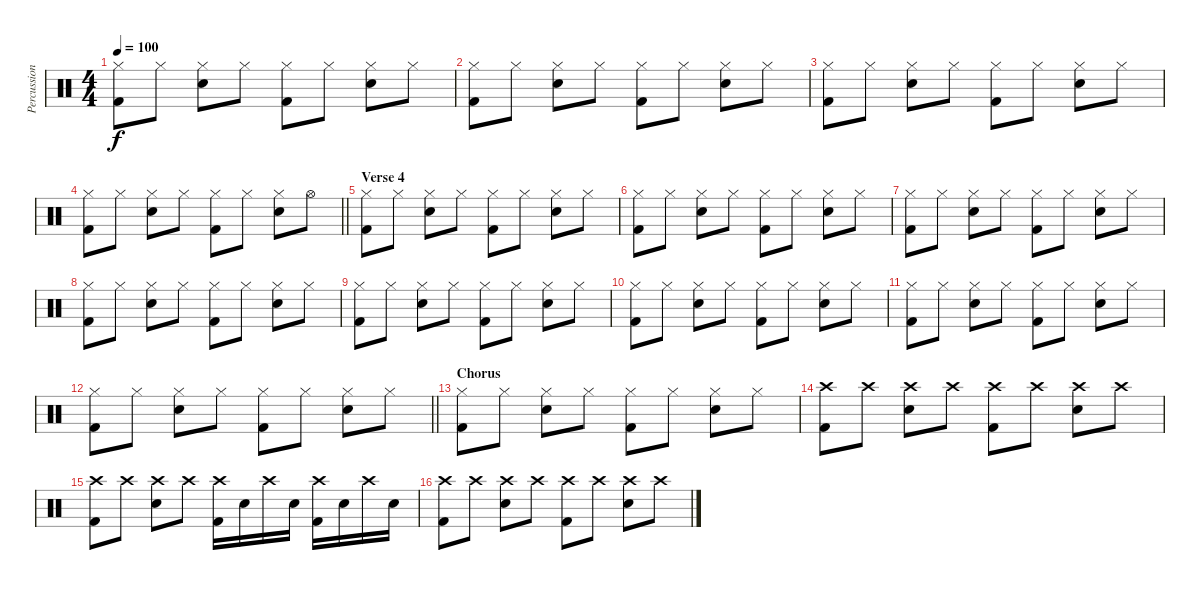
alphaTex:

\track ("Percussion" "Percussion") {instrument percussion}
\staff {score}
\articulation defaults
\ts (4 4)
\tempo 100
\clef neutral
\ks c
("Hi-Hat (closed)" "Kick (hit) 2").8{dy f} "Hi-Hat (closed)".8 ("Hi-Hat (closed)" "Electric Snare (hit)").8 "Hi-Hat (closed)".8 ("Hi-Hat (closed)" "Kick (hit) 2").8 "Hi-Hat (closed)".8 ("Hi-Hat (closed)" "Electric Snare (hit)").8 "Hi-Hat (closed)".8 |
("Hi-Hat (closed)" "Kick (hit) 2").8 "Hi-Hat (closed)".8 ("Hi-Hat (closed)" "Electric Snare (hit)").8 "Hi-Hat (closed)".8 ("Hi-Hat (closed)" "Kick (hit) 2").8 "Hi-Hat (closed)".8 ("Hi-Hat (closed)" "Electric Snare (hit)").8 "Hi-Hat (closed)".8 |
("Hi-Hat (closed)" "Kick (hit) 2").8 "Hi-Hat (closed)".8 ("Hi-Hat (closed)" "Electric Snare (hit)").8 "Hi-Hat (closed)".8 ("Hi-Hat (closed)" "Kick (hit) 2").8 "Hi-Hat (closed)".8 ("Hi-Hat (closed)" "Electric Snare (hit)").8 "Hi-Hat (closed)".8 |
\barLineRight lightlight
("Hi-Hat (closed)" "Kick (hit) 2").8 "Hi-Hat (closed)".8 ("Hi-Hat (closed)" "Electric Snare (hit)").8 "Hi-Hat (closed)".8 ("Hi-Hat (closed)" "Kick (hit) 2").8 "Hi-Hat (closed)".8 ("Hi-Hat (closed)" "Electric Snare (hit)").8 "Hi-Hat (open)".8 |
\section ("" "Verse 4")
("Hi-Hat (closed)" "Kick (hit) 2").8 "Hi-Hat (closed)".8 ("Hi-Hat (closed)" "Electric Snare (hit)").8 "Hi-Hat (closed)".8 ("Hi-Hat (closed)" "Kick (hit) 2").8 "Hi-Hat (closed)".8 ("Hi-Hat (closed)" "Electric Snare (hit)").8 "Hi-Hat (closed)".8 |
("Hi-Hat (closed)" "Kick (hit) 2").8 "Hi-Hat (closed)".8 ("Hi-Hat (closed)" "Electric Snare (hit)").8 "Hi-Hat (closed)".8 ("Hi-Hat (closed)" "Kick (hit) 2").8 "Hi-Hat (closed)".8 ("Hi-Hat (closed)" "Electric Snare (hit)").8 "Hi-Hat (closed)".8 |
("Hi-Hat (closed)" "Kick (hit) 2").8 "Hi-Hat (closed)".8 ("Hi-Hat (closed)" "Electric Snare (hit)").8 "Hi-Hat (closed)".8 ("Hi-Hat (closed)" "Kick (hit) 2").8 "Hi-Hat (closed)".8 ("Hi-Hat (closed)" "Electric Snare (hit)").8 "Hi-Hat (closed)".8 |
("Hi-Hat (closed)" "Kick (hit) 2").8 "Hi-Hat (closed)".8 ("Hi-Hat (closed)" "Electric Snare (hit)").8 "Hi-Hat (closed)".8 ("Hi-Hat (closed)" "Kick (hit) 2").8 "Hi-Hat (closed)".8 ("Hi-Hat (closed)" "Electric Snare (hit)").8 "Hi-Hat (closed)".8 |
("Hi-Hat (closed)" "Kick (hit) 2").8 "Hi-Hat (closed)".8 ("Hi-Hat (closed)" "Electric Snare (hit)").8 "Hi-Hat (closed)".8 ("Hi-Hat (closed)" "Kick (hit) 2").8 "Hi-Hat (closed)".8 ("Hi-Hat (closed)" "Electric Snare (hit)").8 "Hi-Hat (closed)".8 |
("Hi-Hat (closed)" "Kick (hit) 2").8 "Hi-Hat (closed)".8 ("Hi-Hat (closed)" "Electric Snare (hit)").8 "Hi-Hat (closed)".8 ("Hi-Hat (closed)" "Kick (hit) 2").8 "Hi-Hat (closed)".8 ("Hi-Hat (closed)" "Electric Snare (hit)").8 "Hi-Hat (closed)".8 |
("Hi-Hat (closed)" "Kick (hit) 2").8 "Hi-Hat (closed)".8 ("Hi-Hat (closed)" "Electric Snare (hit)").8 "Hi-Hat (closed)".8 ("Hi-Hat (closed)" "Kick (hit) 2").8 "Hi-Hat (closed)".8 ("Hi-Hat (closed)" "Electric Snare (hit)").8 "Hi-Hat (closed)".8 |
\barLineRight lightlight
("Hi-Hat (closed)" "Kick (hit) 2").8 "Hi-Hat (closed)".8 ("Hi-Hat (closed)" "Electric Snare (hit)").8 "Hi-Hat (closed)".8 ("Hi-Hat (closed)" "Kick (hit) 2").8 "Hi-Hat (closed)".8 ("Hi-Hat (closed)" "Electric Snare (hit)").8 "Hi-Hat (closed)".8 |
\section ("" "Chorus")
("Hi-Hat (closed)" "Kick (hit) 2").8 "Hi-Hat (closed)".8 ("Hi-Hat (closed)" "Electric Snare (hit)").8 "Hi-Hat (closed)".8 ("Hi-Hat (closed)" "Kick (hit) 2").8 "Hi-Hat (closed)".8 ("Hi-Hat (closed)" "Electric Snare (hit)").8 "Hi-Hat (closed)".8 |
("Crash high (hit)" "Kick (hit) 2").8 "Crash high (hit)".8 ("Crash high (hit)" "Electric Snare (hit)").8 "Crash high (hit)".8 ("Crash high (hit)" "Kick (hit) 2").8 "Crash high (hit)".8 ("Crash high (hit)" "Electric Snare (hit)").8 "Crash high (hit)".8 |
("Crash high (hit)" "Kick (hit) 2").8 "Crash high (hit)".8 ("Crash high (hit)" "Electric Snare (hit)").8 "Crash high (hit)".8 ("Crash high (hit)" "Kick (hit) 2").16 "Electric Snare (hit)".16 "Crash high (hit)".16 "Electric Snare (hit)".16 ("Crash high (hit)" "Kick (hit) 2").16 "Electric Snare (hit)".16 "Crash high (hit)".16 "Electric Snare (hit)".16 |
("Crash high (hit)" "Kick (hit) 2").8 "Crash high (hit)".8 ("Crash high (hit)" "Electric Snare (hit)").8 "Crash high (hit)".8 ("Crash high (hit)" "Kick (hit) 2").8 "Crash high (hit)".8 ("Crash high (hit)" "Electric Snare (hit)").8 "Crash high (hit)".8
